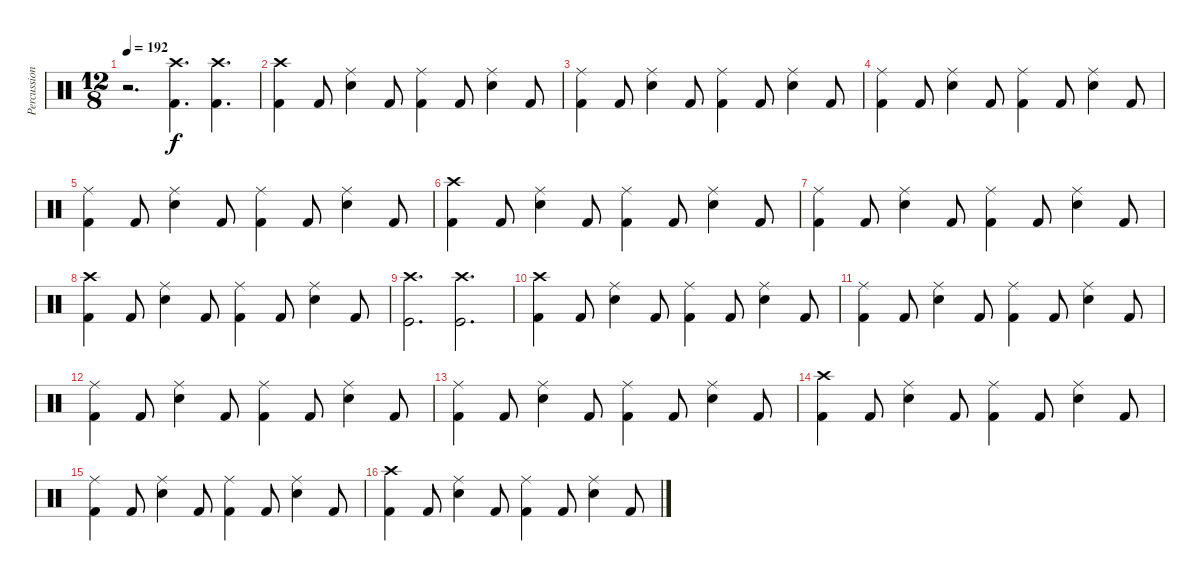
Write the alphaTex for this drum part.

\track ("Percussion" "Percussion") {instrument percussion}
\staff {score}
\articulation defaults
\ts (12 8)
\tempo 192
\clef neutral
\ks c
r.2{d dy f} ("Kick (hit) 2" "Crash high (hit)").4{d} ("Kick (hit) 2" "Crash high (hit)").4{d} |
("Kick (hit) 2" "Crash high (hit)").4 "Kick (hit) 2".8 ("Snare (hit) 2" "Ride (middle)").4 "Kick (hit) 2".8 ("Kick (hit) 2" "Ride (middle)").4 "Kick (hit) 2".8 ("Snare (hit) 2" "Ride (middle)").4 "Kick (hit) 2".8 |
("Kick (hit) 2" "Ride (middle)").4 "Kick (hit) 2".8 ("Snare (hit) 2" "Ride (middle)").4 "Kick (hit) 2".8 ("Kick (hit) 2" "Ride (middle)").4 "Kick (hit) 2".8 ("Snare (hit) 2" "Ride (middle)").4 "Kick (hit) 2".8 |
("Kick (hit) 2" "Ride (middle)").4 "Kick (hit) 2".8 ("Snare (hit) 2" "Ride (middle)").4 "Kick (hit) 2".8 ("Kick (hit) 2" "Ride (middle)").4 "Kick (hit) 2".8 ("Snare (hit) 2" "Ride (middle)").4 "Kick (hit) 2".8 |
("Kick (hit) 2" "Ride (middle)").4 "Kick (hit) 2".8 ("Snare (hit) 2" "Ride (middle)").4 "Kick (hit) 2".8 ("Kick (hit) 2" "Ride (middle)").4 "Kick (hit) 2".8 ("Snare (hit) 2" "Ride (middle)").4 "Kick (hit) 2".8 |
("Kick (hit) 2" "Crash high (hit)").4 "Kick (hit) 2".8 ("Snare (hit) 2" "Ride (middle)").4 "Kick (hit) 2".8 ("Kick (hit) 2" "Ride (middle)").4 "Kick (hit) 2".8 ("Snare (hit) 2" "Ride (middle)").4 "Kick (hit) 2".8 |
("Kick (hit) 2" "Ride (middle)").4 "Kick (hit) 2".8 ("Snare (hit) 2" "Ride (middle)").4 "Kick (hit) 2".8 ("Kick (hit) 2" "Ride (middle)").4 "Kick (hit) 2".8 ("Snare (hit) 2" "Ride (middle)").4 "Kick (hit) 2".8 |
("Kick (hit) 2" "Crash high (hit)").4 "Kick (hit) 2".8 ("Snare (hit) 2" "Ride (middle)").4 "Kick (hit) 2".8 ("Kick (hit) 2" "Ride (middle)").4 "Kick (hit) 2".8 ("Snare (hit) 2" "Ride (middle)").4 "Kick (hit) 2".8 |
("Kick (hit)" "Crash high (hit)").2{d} ("Kick (hit)" "Crash high (hit)").2{d} |
("Kick (hit) 2" "Crash high (hit)").4 "Kick (hit) 2".8 ("Snare (hit) 2" "Ride (middle)").4 "Kick (hit) 2".8 ("Kick (hit) 2" "Ride (middle)").4 "Kick (hit) 2".8 ("Snare (hit) 2" "Ride (middle)").4 "Kick (hit) 2".8 |
("Kick (hit) 2" "Ride (middle)").4 "Kick (hit) 2".8 ("Snare (hit) 2" "Ride (middle)").4 "Kick (hit) 2".8 ("Kick (hit) 2" "Ride (middle)").4 "Kick (hit) 2".8 ("Snare (hit) 2" "Ride (middle)").4 "Kick (hit) 2".8 |
("Kick (hit) 2" "Ride (middle)").4 "Kick (hit) 2".8 ("Snare (hit) 2" "Ride (middle)").4 "Kick (hit) 2".8 ("Kick (hit) 2" "Ride (middle)").4 "Kick (hit) 2".8 ("Snare (hit) 2" "Ride (middle)").4 "Kick (hit) 2".8 |
("Kick (hit) 2" "Ride (middle)").4 "Kick (hit) 2".8 ("Snare (hit) 2" "Ride (middle)").4 "Kick (hit) 2".8 ("Kick (hit) 2" "Ride (middle)").4 "Kick (hit) 2".8 ("Snare (hit) 2" "Ride (middle)").4 "Kick (hit) 2".8 |
("Kick (hit) 2" "Crash high (hit)").4 "Kick (hit) 2".8 ("Snare (hit) 2" "Ride (middle)").4 "Kick (hit) 2".8 ("Kick (hit) 2" "Ride (middle)").4 "Kick (hit) 2".8 ("Snare (hit) 2" "Ride (middle)").4 "Kick (hit) 2".8 |
("Kick (hit) 2" "Ride (middle)").4 "Kick (hit) 2".8 ("Snare (hit) 2" "Ride (middle)").4 "Kick (hit) 2".8 ("Kick (hit) 2" "Ride (middle)").4 "Kick (hit) 2".8 ("Snare (hit) 2" "Ride (middle)").4 "Kick (hit) 2".8 |
("Kick (hit) 2" "Crash high (hit)").4 "Kick (hit) 2".8 ("Snare (hit) 2" "Ride (middle)").4 "Kick (hit) 2".8 ("Kick (hit) 2" "Ride (middle)").4 "Kick (hit) 2".8 ("Snare (hit) 2" "Ride (middle)").4 "Kick (hit) 2".8
